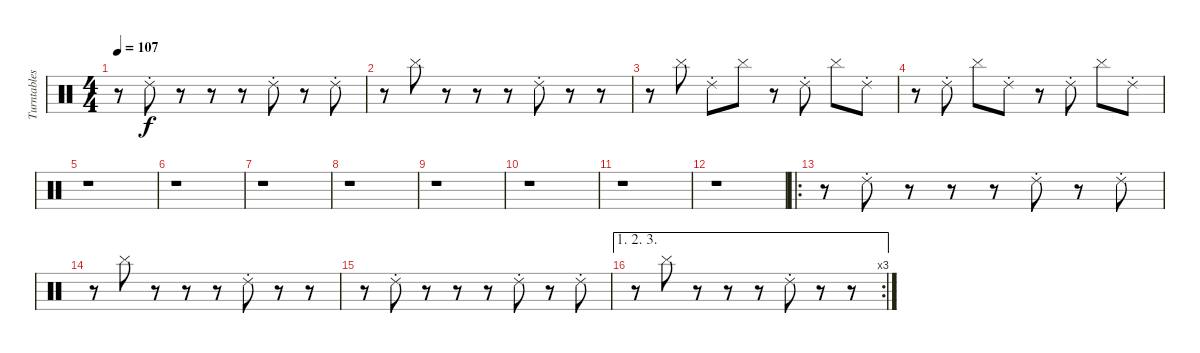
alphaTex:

\track ("Turntables" "Turntables") {instrument percussion}
\staff {score}
\articulation defaults
\ts (4 4)
\tempo 107
\clef neutral
\ks c
r.8{dy f} "Ride (choke) 2".8 r.8 r.8 r.8 "Ride (choke) 2".8 r.8 "Ride (choke) 2".8 |
r.8 "Cymbal (hit)".8 r.8 r.8 r.8 "Ride (choke) 2".8 r.8 r.8 |
r.8 "Cymbal (hit)".8 "Ride (choke) 2".8 "Cymbal (hit)".8 r.8 "Ride (choke) 2".8 "Cymbal (hit)".8 "Ride (choke) 2".8 |
r.8 "Ride (choke) 2".8 "Cymbal (hit)".8 "Ride (choke) 2".8 r.8 "Ride (choke) 2".8 "Cymbal (hit)".8 "Ride (choke) 2".8 |
r.1 |
r.1 |
r.1 |
r.1 |
r.1 |
r.1 |
r.1 |
r.1 |
\ro
r.8 "Ride (choke) 2".8 r.8 r.8 r.8 "Ride (choke) 2".8 r.8 "Ride (choke) 2".8 |
r.8 "Cymbal (hit)".8 r.8 r.8 r.8 "Ride (choke) 2".8 r.8 r.8 |
r.8 "Ride (choke) 2".8 r.8 r.8 r.8 "Ride (choke) 2".8 r.8 "Ride (choke) 2".8 |
\ae (1 2 3)
\rc 3
r.8 "Cymbal (hit)".8 r.8 r.8 r.8 "Ride (choke) 2".8 r.8 r.8
